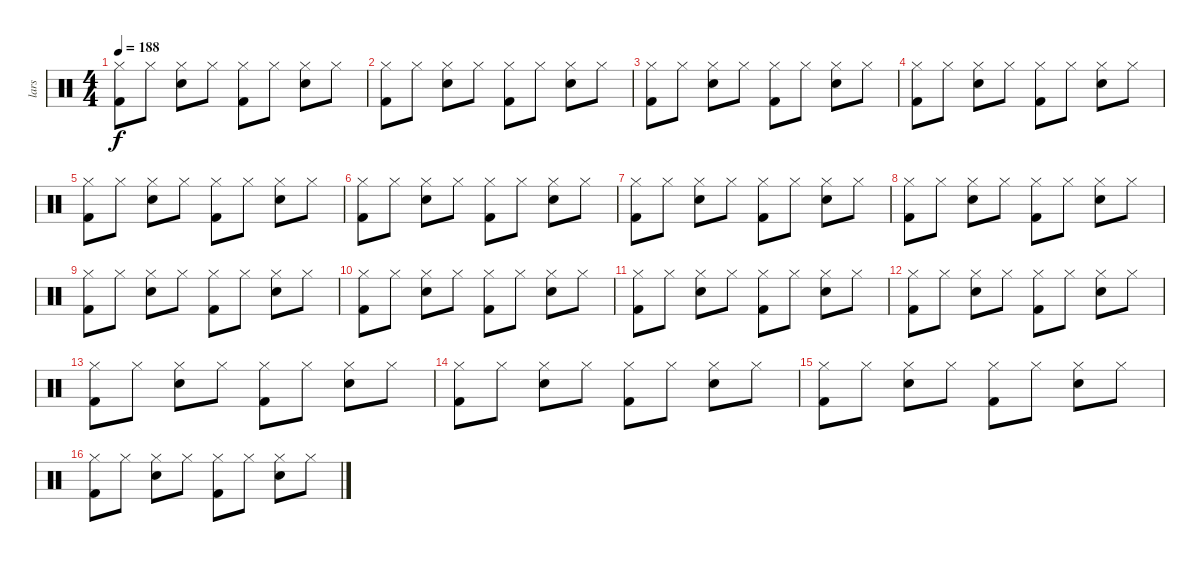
\track ("lars" "lars") {instrument percussion}
\staff {score}
\articulation defaults
\ts (4 4)
\tempo 188
\clef neutral
\ks c
("Kick (hit) 2" "Hi-Hat (closed)").8{dy f} "Hi-Hat (closed)".8 ("Snare (hit) 2" "Hi-Hat (closed)").8 "Hi-Hat (closed)".8 ("Kick (hit) 2" "Hi-Hat (closed)").8 "Hi-Hat (closed)".8 ("Snare (hit) 2" "Hi-Hat (closed)").8 "Hi-Hat (closed)".8 |
("Kick (hit) 2" "Hi-Hat (closed)").8 "Hi-Hat (closed)".8 ("Snare (hit) 2" "Hi-Hat (closed)").8 "Hi-Hat (closed)".8 ("Kick (hit) 2" "Hi-Hat (closed)").8 "Hi-Hat (closed)".8 ("Snare (hit) 2" "Hi-Hat (closed)").8 "Hi-Hat (closed)".8 |
("Kick (hit) 2" "Hi-Hat (closed)").8 "Hi-Hat (closed)".8 ("Snare (hit) 2" "Hi-Hat (closed)").8 "Hi-Hat (closed)".8 ("Kick (hit) 2" "Hi-Hat (closed)").8 "Hi-Hat (closed)".8 ("Snare (hit) 2" "Hi-Hat (closed)").8 "Hi-Hat (closed)".8 |
("Kick (hit) 2" "Hi-Hat (closed)").8 "Hi-Hat (closed)".8 ("Snare (hit) 2" "Hi-Hat (closed)").8 "Hi-Hat (closed)".8 ("Kick (hit) 2" "Hi-Hat (closed)").8 "Hi-Hat (closed)".8 ("Snare (hit) 2" "Hi-Hat (closed)").8 "Hi-Hat (closed)".8 |
("Kick (hit) 2" "Hi-Hat (closed)").8 "Hi-Hat (closed)".8 ("Snare (hit) 2" "Hi-Hat (closed)").8 "Hi-Hat (closed)".8 ("Kick (hit) 2" "Hi-Hat (closed)").8 "Hi-Hat (closed)".8 ("Snare (hit) 2" "Hi-Hat (closed)").8 "Hi-Hat (closed)".8 |
("Kick (hit) 2" "Hi-Hat (closed)").8 "Hi-Hat (closed)".8 ("Snare (hit) 2" "Hi-Hat (closed)").8 "Hi-Hat (closed)".8 ("Kick (hit) 2" "Hi-Hat (closed)").8 "Hi-Hat (closed)".8 ("Snare (hit) 2" "Hi-Hat (closed)").8 "Hi-Hat (closed)".8 |
("Kick (hit) 2" "Hi-Hat (closed)").8 "Hi-Hat (closed)".8 ("Snare (hit) 2" "Hi-Hat (closed)").8 "Hi-Hat (closed)".8 ("Kick (hit) 2" "Hi-Hat (closed)").8 "Hi-Hat (closed)".8 ("Snare (hit) 2" "Hi-Hat (closed)").8 "Hi-Hat (closed)".8 |
("Kick (hit) 2" "Hi-Hat (closed)").8 "Hi-Hat (closed)".8 ("Snare (hit) 2" "Hi-Hat (closed)").8 "Hi-Hat (closed)".8 ("Kick (hit) 2" "Hi-Hat (closed)").8 "Hi-Hat (closed)".8 ("Snare (hit) 2" "Hi-Hat (closed)").8 "Hi-Hat (closed)".8 |
("Kick (hit) 2" "Hi-Hat (closed)").8 "Hi-Hat (closed)".8 ("Snare (hit) 2" "Hi-Hat (closed)").8 "Hi-Hat (closed)".8 ("Kick (hit) 2" "Hi-Hat (closed)").8 "Hi-Hat (closed)".8 ("Snare (hit) 2" "Hi-Hat (closed)").8 "Hi-Hat (closed)".8 |
("Kick (hit) 2" "Hi-Hat (closed)").8 "Hi-Hat (closed)".8 ("Snare (hit) 2" "Hi-Hat (closed)").8 "Hi-Hat (closed)".8 ("Kick (hit) 2" "Hi-Hat (closed)").8 "Hi-Hat (closed)".8 ("Snare (hit) 2" "Hi-Hat (closed)").8 "Hi-Hat (closed)".8 |
("Kick (hit) 2" "Hi-Hat (closed)").8 "Hi-Hat (closed)".8 ("Snare (hit) 2" "Hi-Hat (closed)").8 "Hi-Hat (closed)".8 ("Kick (hit) 2" "Hi-Hat (closed)").8 "Hi-Hat (closed)".8 ("Snare (hit) 2" "Hi-Hat (closed)").8 "Hi-Hat (closed)".8 |
("Kick (hit) 2" "Hi-Hat (closed)").8 "Hi-Hat (closed)".8 ("Snare (hit) 2" "Hi-Hat (closed)").8 "Hi-Hat (closed)".8 ("Kick (hit) 2" "Hi-Hat (closed)").8 "Hi-Hat (closed)".8 ("Snare (hit) 2" "Hi-Hat (closed)").8 "Hi-Hat (closed)".8 |
("Kick (hit) 2" "Hi-Hat (closed)").8 "Hi-Hat (closed)".8 ("Snare (hit) 2" "Hi-Hat (closed)").8 "Hi-Hat (closed)".8 ("Kick (hit) 2" "Hi-Hat (closed)").8 "Hi-Hat (closed)".8 ("Snare (hit) 2" "Hi-Hat (closed)").8 "Hi-Hat (closed)".8 |
("Kick (hit) 2" "Hi-Hat (closed)").8 "Hi-Hat (closed)".8 ("Snare (hit) 2" "Hi-Hat (closed)").8 "Hi-Hat (closed)".8 ("Kick (hit) 2" "Hi-Hat (closed)").8 "Hi-Hat (closed)".8 ("Snare (hit) 2" "Hi-Hat (closed)").8 "Hi-Hat (closed)".8 |
("Kick (hit) 2" "Hi-Hat (closed)").8 "Hi-Hat (closed)".8 ("Snare (hit) 2" "Hi-Hat (closed)").8 "Hi-Hat (closed)".8 ("Kick (hit) 2" "Hi-Hat (closed)").8 "Hi-Hat (closed)".8 ("Snare (hit) 2" "Hi-Hat (closed)").8 "Hi-Hat (closed)".8 |
("Kick (hit) 2" "Hi-Hat (closed)").8 "Hi-Hat (closed)".8 ("Snare (hit) 2" "Hi-Hat (closed)").8 "Hi-Hat (closed)".8 ("Kick (hit) 2" "Hi-Hat (closed)").8 "Hi-Hat (closed)".8 ("Snare (hit) 2" "Hi-Hat (closed)").8 "Hi-Hat (closed)".8
